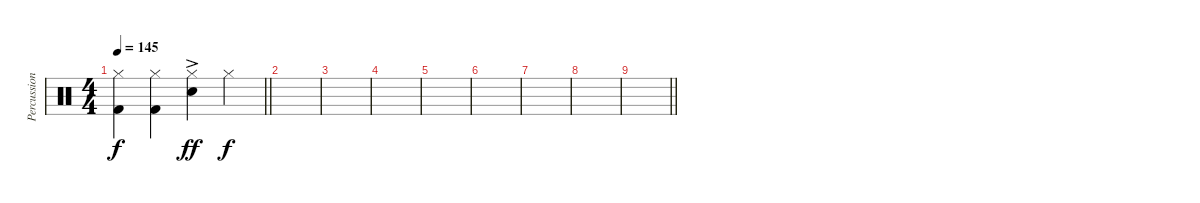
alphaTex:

\track ("Percussion" "Percussion") {instrument percussion}
\staff {score}
\articulation defaults
\ts (4 4)
\tempo 145
\clef neutral
\barLineRight lightlight
\ks c
("Hi-Hat (closed)" "Kick (hit) 2").4{dy f} ("Hi-Hat (closed)" "Kick (hit) 2").4 ("Hi-Hat (closed)" "Electric Snare (hit)"{ac}).4{dy ff} "Hi-Hat (closed)".4{dy f} |
|
|
|
|
|
|
|
\barLineRight lightlight
